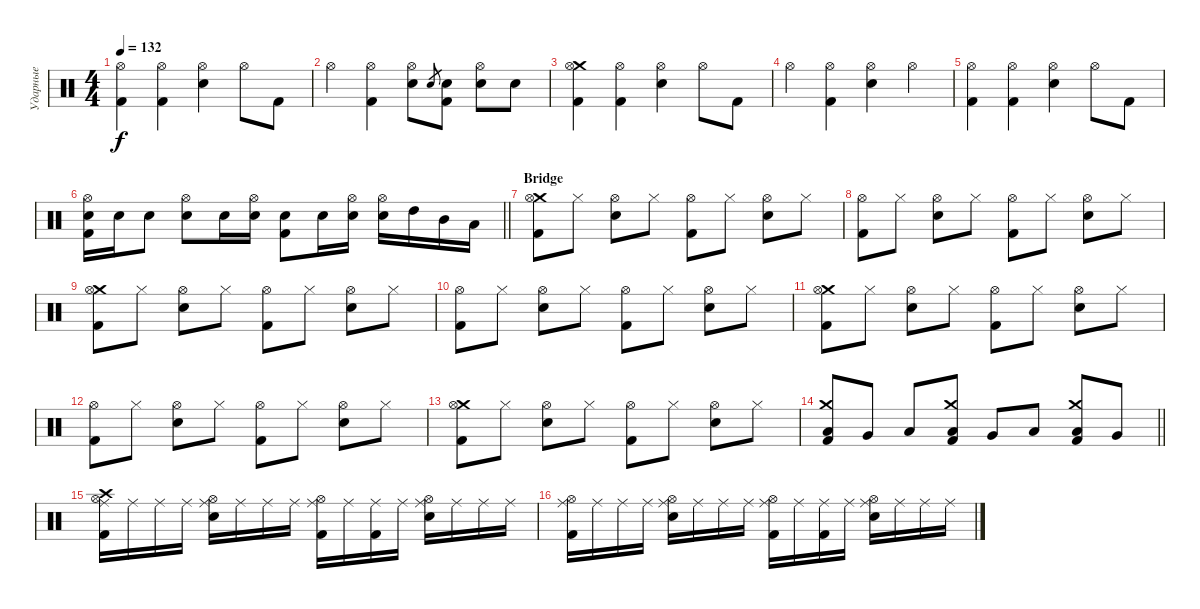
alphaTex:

\track ("Ударные" "Ударные") {instrument percussion}
\staff {score}
\articulation defaults
\ts (4 4)
\tempo 132
\clef neutral
\ks c
("Hi-Hat (open)" "Kick (hit) 2").4{dy f} ("Hi-Hat (open)" "Kick (hit) 2").4 ("Hi-Hat (open)" "Snare (hit) 2").4 "Hi-Hat (open)".8 "Kick (hit) 2".8 |
"Hi-Hat (open)".4 ("Hi-Hat (open)" "Kick (hit) 2").4 ("Hi-Hat (open)" "Snare (hit) 2").8 "Snare (hit) 2".8{gr} ("Snare (hit) 2" "Kick (hit) 2").8 ("Hi-Hat (open)" "Snare (hit) 2").8 "Snare (hit) 2".8 |
("Crash medium (hit)" "Hi-Hat (open)" "Kick (hit) 2").4 ("Hi-Hat (open)" "Kick (hit) 2").4 ("Hi-Hat (open)" "Snare (hit) 2").4 "Hi-Hat (open)".8 "Kick (hit) 2".8 |
"Hi-Hat (open)".4 ("Hi-Hat (open)" "Kick (hit) 2").4 ("Hi-Hat (open)" "Snare (hit) 2").4 "Hi-Hat (open)".4 |
("Hi-Hat (open)" "Kick (hit) 2").4 ("Hi-Hat (open)" "Kick (hit) 2").4 ("Hi-Hat (open)" "Snare (hit) 2").4 "Hi-Hat (open)".8 "Kick (hit) 2".8 |
\barLineRight lightlight
("Hi-Hat (open)" "Snare (hit) 2" "Kick (hit) 2").16 "Snare (hit) 2".16 "Snare (hit) 2".8 ("Hi-Hat (open)" "Snare (hit) 2").8 "Snare (hit) 2".16 ("Hi-Hat (open)" "Snare (hit) 2").16 ("Snare (hit) 2" "Kick (hit) 2").8 "Snare (hit) 2".16 ("Hi-Hat (open)" "Snare (hit) 2").16 ("Hi-Hat (open)" "Snare (hit) 2").16 "High Tom (hit)".16 "Mid Tom (hit)".16 "Low Tom (hit)".16 |
\section ("" "Bridge")
("Crash medium (hit)" "Hi-Hat (open)" "Kick (hit) 2").8 "Hi-Hat (closed)".8 ("Hi-Hat (open)" "Snare (hit) 2").8 "Hi-Hat (closed)".8 ("Hi-Hat (open)" "Kick (hit) 2").8 "Hi-Hat (closed)".8 ("Hi-Hat (open)" "Snare (hit) 2").8 "Hi-Hat (closed)".8 |
("Hi-Hat (open)" "Kick (hit) 2").8 "Hi-Hat (closed)".8 ("Hi-Hat (open)" "Snare (hit) 2").8 "Hi-Hat (closed)".8 ("Hi-Hat (open)" "Kick (hit) 2").8 "Hi-Hat (closed)".8 ("Hi-Hat (open)" "Snare (hit) 2").8 "Hi-Hat (closed)".8 |
("Crash medium (hit)" "Hi-Hat (open)" "Kick (hit) 2").8 "Hi-Hat (closed)".8 ("Hi-Hat (open)" "Snare (hit) 2").8 "Hi-Hat (closed)".8 ("Hi-Hat (open)" "Kick (hit) 2").8 "Hi-Hat (closed)".8 ("Hi-Hat (open)" "Snare (hit) 2").8 "Hi-Hat (closed)".8 |
("Hi-Hat (open)" "Kick (hit) 2").8 "Hi-Hat (closed)".8 ("Hi-Hat (open)" "Snare (hit) 2").8 "Hi-Hat (closed)".8 ("Hi-Hat (open)" "Kick (hit) 2").8 "Hi-Hat (closed)".8 ("Hi-Hat (open)" "Snare (hit) 2").8 "Hi-Hat (closed)".8 |
("Crash medium (hit)" "Hi-Hat (open)" "Kick (hit) 2").8 "Hi-Hat (closed)".8 ("Hi-Hat (open)" "Snare (hit) 2").8 "Hi-Hat (closed)".8 ("Hi-Hat (open)" "Kick (hit) 2").8 "Hi-Hat (closed)".8 ("Hi-Hat (open)" "Snare (hit) 2").8 "Hi-Hat (closed)".8 |
("Hi-Hat (open)" "Kick (hit) 2").8 "Hi-Hat (closed)".8 ("Hi-Hat (open)" "Snare (hit) 2").8 "Hi-Hat (closed)".8 ("Hi-Hat (open)" "Kick (hit) 2").8 "Hi-Hat (closed)".8 ("Hi-Hat (open)" "Snare (hit) 2").8 "Hi-Hat (closed)".8 |
("Crash medium (hit)" "Hi-Hat (open)" "Kick (hit) 2").8 "Hi-Hat (closed)".8 ("Hi-Hat (open)" "Snare (hit) 2").8 "Hi-Hat (closed)".8 ("Hi-Hat (open)" "Kick (hit) 2").8 "Hi-Hat (closed)".8 ("Hi-Hat (open)" "Snare (hit) 2").8 "Hi-Hat (closed)".8 |
\barLineRight lightlight
("Crash medium (hit)" "Low Tom (hit)" "Kick (hit) 2").8 "Very Low Tom (hit)".8 "Low Floor Tom (hit)".8 ("Crash medium (hit)" "Low Tom (hit)" "Kick (hit) 2").8 "Very Low Tom (hit)".8 "Low Floor Tom (hit)".8 ("Crash medium (hit)" "Low Tom (hit)" "Kick (hit) 2").8 "Very Low Tom (hit)".8 |
("Crash high (hit)" "Hi-Hat (open)" "Ride (middle)" "Kick (hit) 2").16 "Ride (middle)".16 "Ride (middle)".16 "Ride (middle)".16 ("Hi-Hat (open)" "Ride (middle)" "Snare (hit) 2").16 "Ride (middle)".16 "Ride (middle)".16 "Ride (middle)".16 ("Hi-Hat (open)" "Ride (middle)" "Kick (hit) 2").16 "Ride (middle)".16 ("Ride (middle)" "Kick (hit) 2").16 "Ride (middle)".16 ("Hi-Hat (open)" "Ride (middle)" "Snare (hit) 2").16 "Ride (middle)".16 "Ride (middle)".16 "Ride (middle)".16 |
("Hi-Hat (open)" "Ride (middle)" "Kick (hit) 2").16 "Ride (middle)".16 "Ride (middle)".16 "Ride (middle)".16 ("Hi-Hat (open)" "Ride (middle)" "Snare (hit) 2").16 "Ride (middle)".16 "Ride (middle)".16 "Ride (middle)".16 ("Hi-Hat (open)" "Ride (middle)" "Kick (hit) 2").16 "Ride (middle)".16 ("Ride (middle)" "Kick (hit) 2").16 "Ride (middle)".16 ("Hi-Hat (open)" "Ride (middle)" "Snare (hit) 2").16 "Ride (middle)".16 "Ride (middle)".16 "Ride (middle)".16
